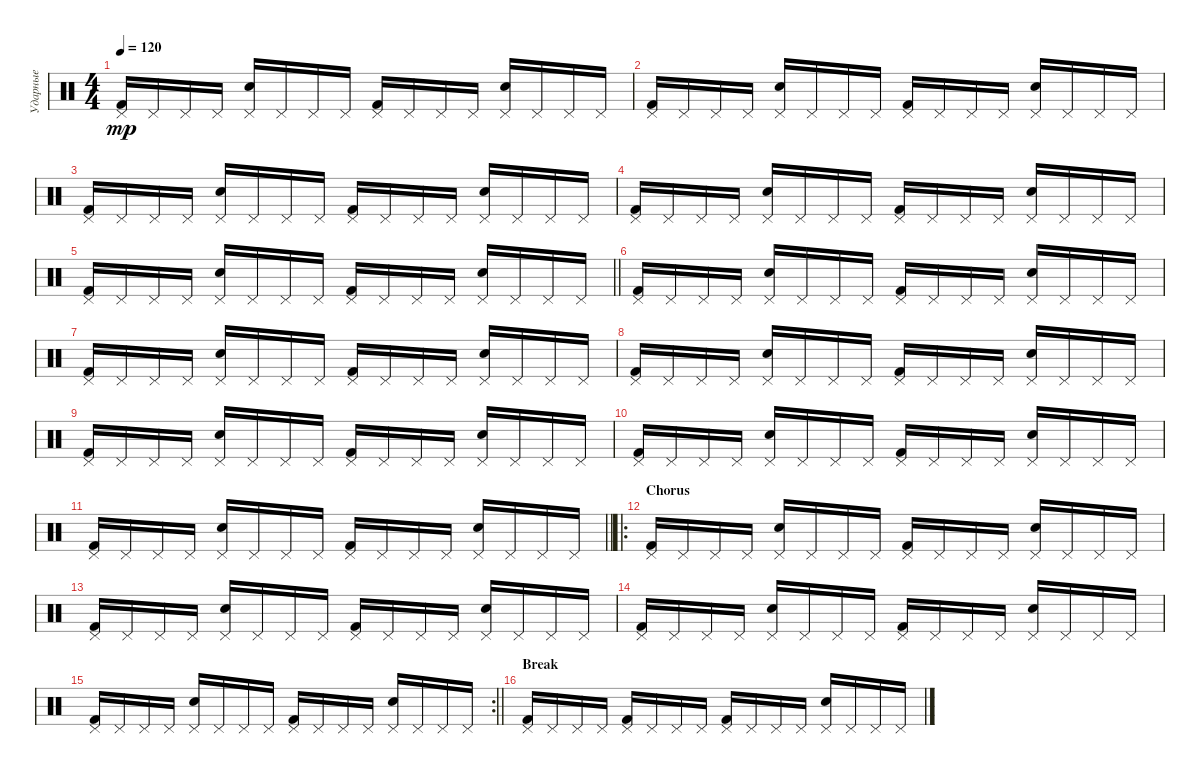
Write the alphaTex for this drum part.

\track ("Ударные" "Ударные") {instrument percussion}
\staff {score}
\articulation defaults
\ts (4 4)
\tempo 120
\clef neutral
\ks c
("Pedal Hi-Hat (hit)" "Kick (hit) 2").16{dy mp} "Pedal Hi-Hat (hit)".16 "Pedal Hi-Hat (hit)".16 "Pedal Hi-Hat (hit)".16 ("Pedal Hi-Hat (hit)" "Snare (hit) 2").16 "Pedal Hi-Hat (hit)".16 "Pedal Hi-Hat (hit)".16 "Pedal Hi-Hat (hit)".16 ("Pedal Hi-Hat (hit)" "Kick (hit) 2").16 "Pedal Hi-Hat (hit)".16 "Pedal Hi-Hat (hit)".16 "Pedal Hi-Hat (hit)".16 ("Pedal Hi-Hat (hit)" "Snare (hit) 2").16 "Pedal Hi-Hat (hit)".16 "Pedal Hi-Hat (hit)".16 "Pedal Hi-Hat (hit)".16 |
("Pedal Hi-Hat (hit)" "Kick (hit) 2").16 "Pedal Hi-Hat (hit)".16 "Pedal Hi-Hat (hit)".16 "Pedal Hi-Hat (hit)".16 ("Pedal Hi-Hat (hit)" "Snare (hit) 2").16 "Pedal Hi-Hat (hit)".16 "Pedal Hi-Hat (hit)".16 "Pedal Hi-Hat (hit)".16 ("Pedal Hi-Hat (hit)" "Kick (hit) 2").16 "Pedal Hi-Hat (hit)".16 "Pedal Hi-Hat (hit)".16 "Pedal Hi-Hat (hit)".16 ("Pedal Hi-Hat (hit)" "Snare (hit) 2").16 "Pedal Hi-Hat (hit)".16 "Pedal Hi-Hat (hit)".16 "Pedal Hi-Hat (hit)".16 |
("Pedal Hi-Hat (hit)" "Kick (hit) 2").16 "Pedal Hi-Hat (hit)".16 "Pedal Hi-Hat (hit)".16 "Pedal Hi-Hat (hit)".16 ("Pedal Hi-Hat (hit)" "Snare (hit) 2").16 "Pedal Hi-Hat (hit)".16 "Pedal Hi-Hat (hit)".16 "Pedal Hi-Hat (hit)".16 ("Pedal Hi-Hat (hit)" "Kick (hit) 2").16 "Pedal Hi-Hat (hit)".16 "Pedal Hi-Hat (hit)".16 "Pedal Hi-Hat (hit)".16 ("Pedal Hi-Hat (hit)" "Snare (hit) 2").16 "Pedal Hi-Hat (hit)".16 "Pedal Hi-Hat (hit)".16 "Pedal Hi-Hat (hit)".16 |
("Pedal Hi-Hat (hit)" "Kick (hit) 2").16 "Pedal Hi-Hat (hit)".16 "Pedal Hi-Hat (hit)".16 "Pedal Hi-Hat (hit)".16 ("Pedal Hi-Hat (hit)" "Snare (hit) 2").16 "Pedal Hi-Hat (hit)".16 "Pedal Hi-Hat (hit)".16 "Pedal Hi-Hat (hit)".16 ("Pedal Hi-Hat (hit)" "Kick (hit) 2").16 "Pedal Hi-Hat (hit)".16 "Pedal Hi-Hat (hit)".16 "Pedal Hi-Hat (hit)".16 ("Pedal Hi-Hat (hit)" "Snare (hit) 2").16 "Pedal Hi-Hat (hit)".16 "Pedal Hi-Hat (hit)".16 "Pedal Hi-Hat (hit)".16 |
\barLineRight lightlight
("Pedal Hi-Hat (hit)" "Kick (hit) 2").16 "Pedal Hi-Hat (hit)".16 "Pedal Hi-Hat (hit)".16 "Pedal Hi-Hat (hit)".16 ("Pedal Hi-Hat (hit)" "Snare (hit) 2").16 "Pedal Hi-Hat (hit)".16 "Pedal Hi-Hat (hit)".16 "Pedal Hi-Hat (hit)".16 ("Pedal Hi-Hat (hit)" "Kick (hit) 2").16 "Pedal Hi-Hat (hit)".16 "Pedal Hi-Hat (hit)".16 "Pedal Hi-Hat (hit)".16 ("Pedal Hi-Hat (hit)" "Snare (hit) 2").16 "Pedal Hi-Hat (hit)".16 "Pedal Hi-Hat (hit)".16 "Pedal Hi-Hat (hit)".16 |
("Pedal Hi-Hat (hit)" "Kick (hit) 2").16 "Pedal Hi-Hat (hit)".16 "Pedal Hi-Hat (hit)".16 "Pedal Hi-Hat (hit)".16 ("Pedal Hi-Hat (hit)" "Snare (hit) 2").16 "Pedal Hi-Hat (hit)".16 "Pedal Hi-Hat (hit)".16 "Pedal Hi-Hat (hit)".16 ("Pedal Hi-Hat (hit)" "Kick (hit) 2").16 "Pedal Hi-Hat (hit)".16 "Pedal Hi-Hat (hit)".16 "Pedal Hi-Hat (hit)".16 ("Pedal Hi-Hat (hit)" "Snare (hit) 2").16 "Pedal Hi-Hat (hit)".16 "Pedal Hi-Hat (hit)".16 "Pedal Hi-Hat (hit)".16 |
("Pedal Hi-Hat (hit)" "Kick (hit) 2").16 "Pedal Hi-Hat (hit)".16 "Pedal Hi-Hat (hit)".16 "Pedal Hi-Hat (hit)".16 ("Pedal Hi-Hat (hit)" "Snare (hit) 2").16 "Pedal Hi-Hat (hit)".16 "Pedal Hi-Hat (hit)".16 "Pedal Hi-Hat (hit)".16 ("Pedal Hi-Hat (hit)" "Kick (hit) 2").16 "Pedal Hi-Hat (hit)".16 "Pedal Hi-Hat (hit)".16 "Pedal Hi-Hat (hit)".16 ("Pedal Hi-Hat (hit)" "Snare (hit) 2").16 "Pedal Hi-Hat (hit)".16 "Pedal Hi-Hat (hit)".16 "Pedal Hi-Hat (hit)".16 |
("Pedal Hi-Hat (hit)" "Kick (hit) 2").16 "Pedal Hi-Hat (hit)".16 "Pedal Hi-Hat (hit)".16 "Pedal Hi-Hat (hit)".16 ("Pedal Hi-Hat (hit)" "Snare (hit) 2").16 "Pedal Hi-Hat (hit)".16 "Pedal Hi-Hat (hit)".16 "Pedal Hi-Hat (hit)".16 ("Pedal Hi-Hat (hit)" "Kick (hit) 2").16 "Pedal Hi-Hat (hit)".16 "Pedal Hi-Hat (hit)".16 "Pedal Hi-Hat (hit)".16 ("Pedal Hi-Hat (hit)" "Snare (hit) 2").16 "Pedal Hi-Hat (hit)".16 "Pedal Hi-Hat (hit)".16 "Pedal Hi-Hat (hit)".16 |
("Pedal Hi-Hat (hit)" "Kick (hit) 2").16 "Pedal Hi-Hat (hit)".16 "Pedal Hi-Hat (hit)".16 "Pedal Hi-Hat (hit)".16 ("Pedal Hi-Hat (hit)" "Snare (hit) 2").16 "Pedal Hi-Hat (hit)".16 "Pedal Hi-Hat (hit)".16 "Pedal Hi-Hat (hit)".16 ("Pedal Hi-Hat (hit)" "Kick (hit) 2").16 "Pedal Hi-Hat (hit)".16 "Pedal Hi-Hat (hit)".16 "Pedal Hi-Hat (hit)".16 ("Pedal Hi-Hat (hit)" "Snare (hit) 2").16 "Pedal Hi-Hat (hit)".16 "Pedal Hi-Hat (hit)".16 "Pedal Hi-Hat (hit)".16 |
("Pedal Hi-Hat (hit)" "Kick (hit) 2").16 "Pedal Hi-Hat (hit)".16 "Pedal Hi-Hat (hit)".16 "Pedal Hi-Hat (hit)".16 ("Pedal Hi-Hat (hit)" "Snare (hit) 2").16 "Pedal Hi-Hat (hit)".16 "Pedal Hi-Hat (hit)".16 "Pedal Hi-Hat (hit)".16 ("Pedal Hi-Hat (hit)" "Kick (hit) 2").16 "Pedal Hi-Hat (hit)".16 "Pedal Hi-Hat (hit)".16 "Pedal Hi-Hat (hit)".16 ("Pedal Hi-Hat (hit)" "Snare (hit) 2").16 "Pedal Hi-Hat (hit)".16 "Pedal Hi-Hat (hit)".16 "Pedal Hi-Hat (hit)".16 |
\barLineRight lightlight
("Pedal Hi-Hat (hit)" "Kick (hit) 2").16 "Pedal Hi-Hat (hit)".16 "Pedal Hi-Hat (hit)".16 "Pedal Hi-Hat (hit)".16 ("Pedal Hi-Hat (hit)" "Snare (hit) 2").16 "Pedal Hi-Hat (hit)".16 "Pedal Hi-Hat (hit)".16 "Pedal Hi-Hat (hit)".16 ("Pedal Hi-Hat (hit)" "Kick (hit) 2").16 "Pedal Hi-Hat (hit)".16 "Pedal Hi-Hat (hit)".16 "Pedal Hi-Hat (hit)".16 ("Pedal Hi-Hat (hit)" "Snare (hit) 2").16 "Pedal Hi-Hat (hit)".16 "Pedal Hi-Hat (hit)".16 "Pedal Hi-Hat (hit)".16 |
\ro
\section ("" "Chorus")
("Pedal Hi-Hat (hit)" "Kick (hit) 2").16 "Pedal Hi-Hat (hit)".16 "Pedal Hi-Hat (hit)".16 "Pedal Hi-Hat (hit)".16 ("Pedal Hi-Hat (hit)" "Snare (hit) 2").16 "Pedal Hi-Hat (hit)".16 "Pedal Hi-Hat (hit)".16 "Pedal Hi-Hat (hit)".16 ("Pedal Hi-Hat (hit)" "Kick (hit) 2").16 "Pedal Hi-Hat (hit)".16 "Pedal Hi-Hat (hit)".16 "Pedal Hi-Hat (hit)".16 ("Pedal Hi-Hat (hit)" "Snare (hit) 2").16 "Pedal Hi-Hat (hit)".16 "Pedal Hi-Hat (hit)".16 "Pedal Hi-Hat (hit)".16 |
("Pedal Hi-Hat (hit)" "Kick (hit) 2").16 "Pedal Hi-Hat (hit)".16 "Pedal Hi-Hat (hit)".16 "Pedal Hi-Hat (hit)".16 ("Pedal Hi-Hat (hit)" "Snare (hit) 2").16 "Pedal Hi-Hat (hit)".16 "Pedal Hi-Hat (hit)".16 "Pedal Hi-Hat (hit)".16 ("Pedal Hi-Hat (hit)" "Kick (hit) 2").16 "Pedal Hi-Hat (hit)".16 "Pedal Hi-Hat (hit)".16 "Pedal Hi-Hat (hit)".16 ("Pedal Hi-Hat (hit)" "Snare (hit) 2").16 "Pedal Hi-Hat (hit)".16 "Pedal Hi-Hat (hit)".16 "Pedal Hi-Hat (hit)".16 |
("Pedal Hi-Hat (hit)" "Kick (hit) 2").16 "Pedal Hi-Hat (hit)".16 "Pedal Hi-Hat (hit)".16 "Pedal Hi-Hat (hit)".16 ("Pedal Hi-Hat (hit)" "Snare (hit) 2").16 "Pedal Hi-Hat (hit)".16 "Pedal Hi-Hat (hit)".16 "Pedal Hi-Hat (hit)".16 ("Pedal Hi-Hat (hit)" "Kick (hit) 2").16 "Pedal Hi-Hat (hit)".16 "Pedal Hi-Hat (hit)".16 "Pedal Hi-Hat (hit)".16 ("Pedal Hi-Hat (hit)" "Snare (hit) 2").16 "Pedal Hi-Hat (hit)".16 "Pedal Hi-Hat (hit)".16 "Pedal Hi-Hat (hit)".16 |
\rc 2
\barLineRight lightlight
("Pedal Hi-Hat (hit)" "Kick (hit) 2").16 "Pedal Hi-Hat (hit)".16 "Pedal Hi-Hat (hit)".16 "Pedal Hi-Hat (hit)".16 ("Pedal Hi-Hat (hit)" "Snare (hit) 2").16 "Pedal Hi-Hat (hit)".16 "Pedal Hi-Hat (hit)".16 "Pedal Hi-Hat (hit)".16 ("Pedal Hi-Hat (hit)" "Kick (hit) 2").16 "Pedal Hi-Hat (hit)".16 "Pedal Hi-Hat (hit)".16 "Pedal Hi-Hat (hit)".16 ("Pedal Hi-Hat (hit)" "Snare (hit) 2").16 "Pedal Hi-Hat (hit)".16 "Pedal Hi-Hat (hit)".16 "Pedal Hi-Hat (hit)".16 |
\section ("" "Break")
("Pedal Hi-Hat (hit)" "Kick (hit) 2").16 "Pedal Hi-Hat (hit)".16 "Pedal Hi-Hat (hit)".16 "Pedal Hi-Hat (hit)".16 ("Pedal Hi-Hat (hit)" "Kick (hit) 2").16 "Pedal Hi-Hat (hit)".16 "Pedal Hi-Hat (hit)".16 "Pedal Hi-Hat (hit)".16 ("Pedal Hi-Hat (hit)" "Kick (hit) 2").16 "Pedal Hi-Hat (hit)".16 "Pedal Hi-Hat (hit)".16 "Pedal Hi-Hat (hit)".16 ("Pedal Hi-Hat (hit)" "Snare (hit) 2").16 "Pedal Hi-Hat (hit)".16 "Pedal Hi-Hat (hit)".16 "Pedal Hi-Hat (hit)".16
